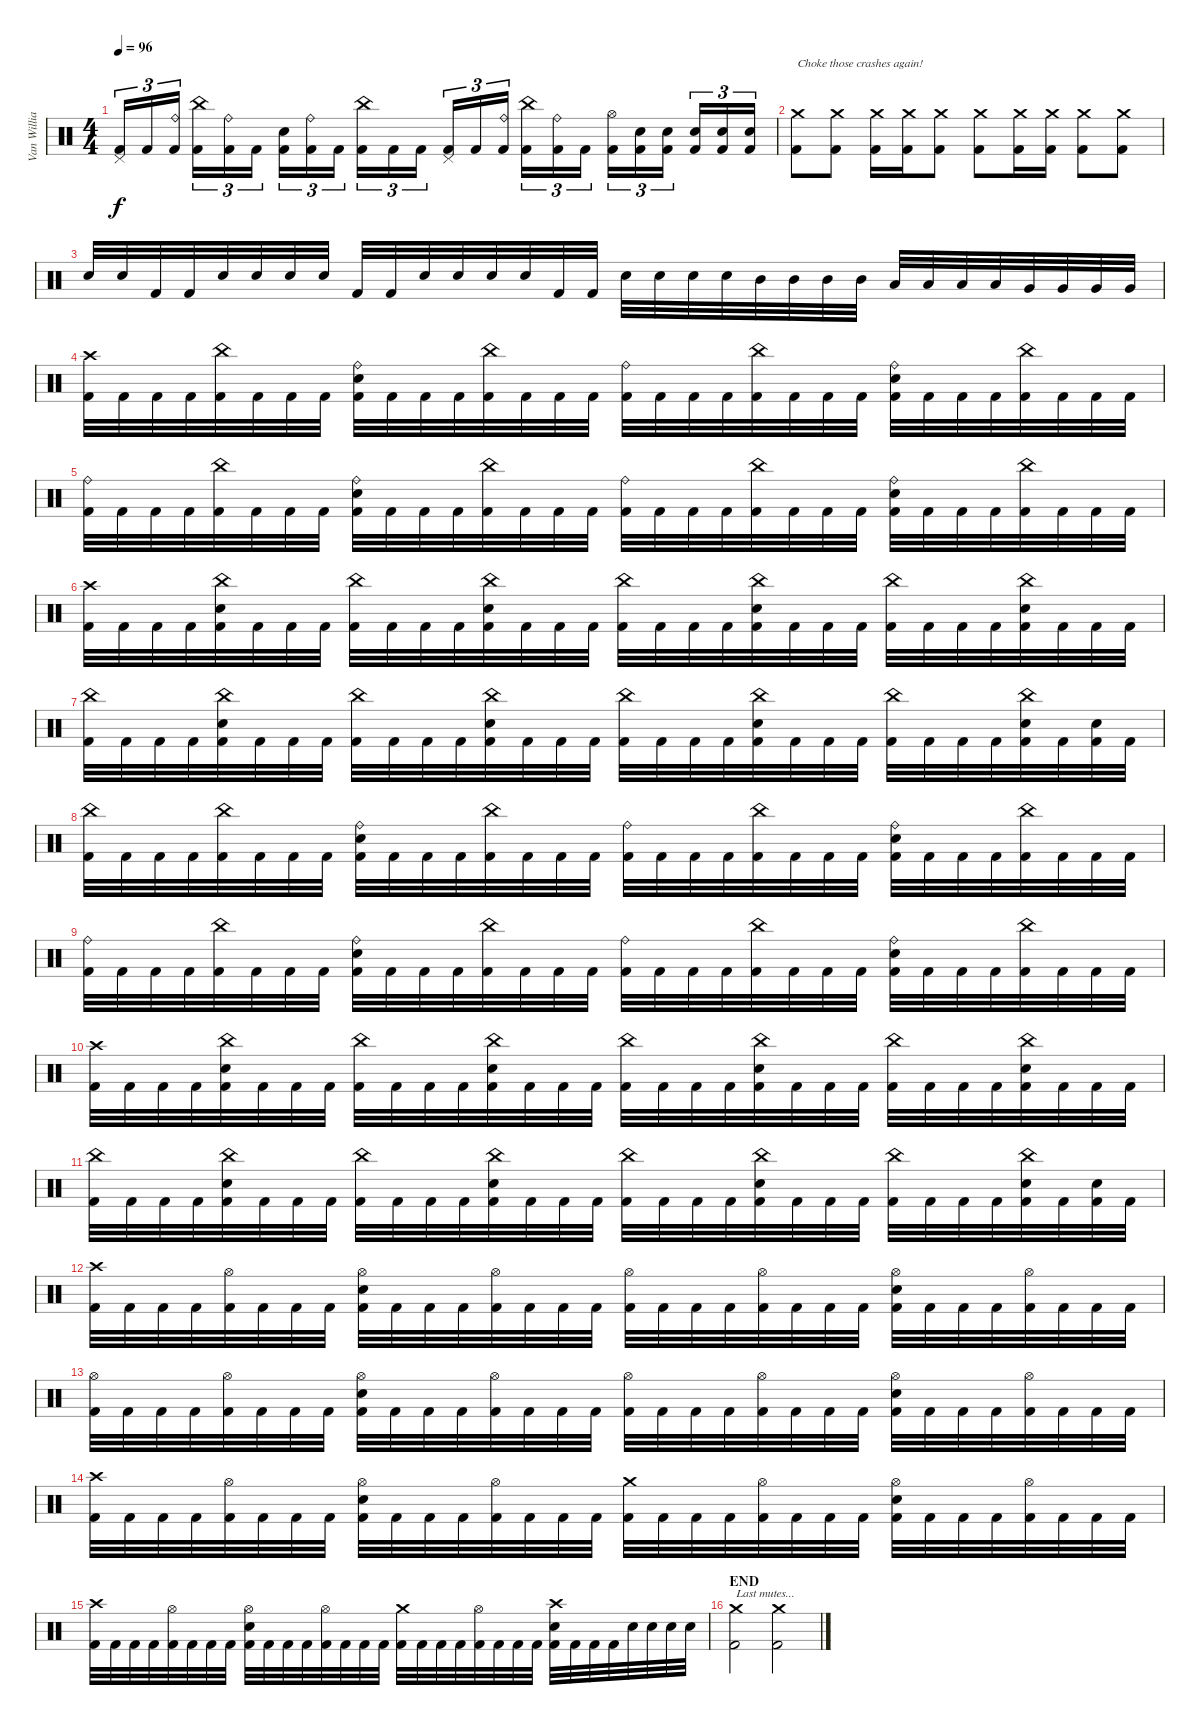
\track ("Van Williams" "Van Willia") {instrument percussion}
\staff {score}
\articulation defaults
\ts (4 4)
\tempo 96
\clef neutral
\ks c
("Pedal Hi-Hat (hit)" "Kick (hit) 2").16{tu (3 2) dy f} "Kick (hit) 2".16{tu (3 2)} ("Ride (bell)" "Kick (hit) 2").16{tu (3 2)} ("China (hit)" "Kick (hit) 2").16{tu (3 2)} ("Ride (bell)" "Kick (hit) 2").16{tu (3 2)} "Kick (hit) 2".16{tu (3 2)} ("Electric Snare (hit)" "Kick (hit) 2").16{tu (3 2)} ("Ride (bell)" "Kick (hit) 2").16{tu (3 2)} "Kick (hit) 2".16{tu (3 2)} ("China (hit)" "Kick (hit) 2").16{tu (3 2)} "Kick (hit) 2".16{tu (3 2)} "Kick (hit) 2".16{tu (3 2)} ("Pedal Hi-Hat (hit)" "Kick (hit) 2").16{tu (3 2)} "Kick (hit) 2".16{tu (3 2)} ("Ride (bell)" "Kick (hit) 2").16{tu (3 2)} ("China (hit)" "Kick (hit) 2").16{tu (3 2)} ("Ride (bell)" "Kick (hit) 2").16{tu (3 2)} "Kick (hit) 2".16{tu (3 2)} ("Hi-Hat (open)" "Kick (hit) 2").16{tu (3 2)} ("Electric Snare (hit)" "Kick (hit) 2").16{tu (3 2)} ("Electric Snare (hit)" "Kick (hit) 2").16{tu (3 2)} ("Electric Snare (hit)" "Kick (hit) 2").16{tu (3 2)} ("Electric Snare (hit)" "Kick (hit) 2").16{tu (3 2)} ("Electric Snare (hit)" "Kick (hit) 2").16{tu (3 2)} |
\section ("" "")
("Crash medium (hit)" "Kick (hit) 2").8{txt "Choke those crashes again!"} ("Crash medium (hit)" "Kick (hit) 2").8 ("Crash medium (hit)" "Kick (hit) 2").16 ("Crash medium (hit)" "Kick (hit) 2").16 ("Crash medium (hit)" "Kick (hit) 2").8 ("Crash medium (hit)" "Kick (hit) 2").8 ("Crash medium (hit)" "Kick (hit) 2").16 ("Crash medium (hit)" "Kick (hit) 2").16 ("Crash medium (hit)" "Kick (hit) 2").8 ("Crash medium (hit)" "Kick (hit) 2").8 |
"Electric Snare (hit)".32 "Electric Snare (hit)".32 "Kick (hit) 2".32 "Kick (hit) 2".32 "Electric Snare (hit)".32 "Electric Snare (hit)".32 "Electric Snare (hit)".32 "Electric Snare (hit)".32 "Kick (hit) 2".32 "Kick (hit) 2".32 "Electric Snare (hit)".32 "Electric Snare (hit)".32 "Electric Snare (hit)".32 "Electric Snare (hit)".32 "Kick (hit) 2".32 "Kick (hit) 2".32 "Electric Snare (hit)".32 "Electric Snare (hit)".32 "Electric Snare (hit)".32 "Electric Snare (hit)".32 "Mid Tom (hit)".32 "Mid Tom (hit)".32 "Mid Tom (hit)".32 "Mid Tom (hit)".32 "Low Tom (hit)".32 "Low Tom (hit)".32 "Low Tom (hit)".32 "Low Tom (hit)".32 "Very Low Tom (hit)".32 "Very Low Tom (hit)".32 "Very Low Tom (hit)".32 "Very Low Tom (hit)".32 |
("Crash high (hit)" "Kick (hit) 2").32 "Kick (hit) 2".32 "Kick (hit) 2".32 "Kick (hit) 2".32 ("China (hit)" "Kick (hit) 2").32 "Kick (hit) 2".32 "Kick (hit) 2".32 "Kick (hit) 2".32 ("Ride (bell)" "Electric Snare (hit)" "Kick (hit) 2").32 "Kick (hit) 2".32 "Kick (hit) 2".32 "Kick (hit) 2".32 ("China (hit)" "Kick (hit) 2").32 "Kick (hit) 2".32 "Kick (hit) 2".32 "Kick (hit) 2".32 ("Ride (bell)" "Kick (hit) 2").32 "Kick (hit) 2".32 "Kick (hit) 2".32 "Kick (hit) 2".32 ("China (hit)" "Kick (hit) 2").32 "Kick (hit) 2".32 "Kick (hit) 2".32 "Kick (hit) 2".32 ("Ride (bell)" "Electric Snare (hit)" "Kick (hit) 2").32 "Kick (hit) 2".32 "Kick (hit) 2".32 "Kick (hit) 2".32 ("China (hit)" "Kick (hit) 2").32 "Kick (hit) 2".32 "Kick (hit) 2".32 "Kick (hit) 2".32 |
("Ride (bell)" "Kick (hit) 2").32 "Kick (hit) 2".32 "Kick (hit) 2".32 "Kick (hit) 2".32 ("China (hit)" "Kick (hit) 2").32 "Kick (hit) 2".32 "Kick (hit) 2".32 "Kick (hit) 2".32 ("Ride (bell)" "Electric Snare (hit)" "Kick (hit) 2").32 "Kick (hit) 2".32 "Kick (hit) 2".32 "Kick (hit) 2".32 ("China (hit)" "Kick (hit) 2").32 "Kick (hit) 2".32 "Kick (hit) 2".32 "Kick (hit) 2".32 ("Ride (bell)" "Kick (hit) 2").32 "Kick (hit) 2".32 "Kick (hit) 2".32 "Kick (hit) 2".32 ("China (hit)" "Kick (hit) 2").32 "Kick (hit) 2".32 "Kick (hit) 2".32 "Kick (hit) 2".32 ("Ride (bell)" "Electric Snare (hit)" "Kick (hit) 2").32 "Kick (hit) 2".32 "Kick (hit) 2".32 "Kick (hit) 2".32 ("China (hit)" "Kick (hit) 2").32 "Kick (hit) 2".32 "Kick (hit) 2".32 "Kick (hit) 2".32 |
("Crash high (hit)" "Kick (hit) 2").32 "Kick (hit) 2".32 "Kick (hit) 2".32 "Kick (hit) 2".32 ("China (hit)" "Electric Snare (hit)" "Kick (hit) 2").32 "Kick (hit) 2".32 "Kick (hit) 2".32 "Kick (hit) 2".32 ("China (hit)" "Kick (hit) 2").32 "Kick (hit) 2".32 "Kick (hit) 2".32 "Kick (hit) 2".32 ("China (hit)" "Electric Snare (hit)" "Kick (hit) 2").32 "Kick (hit) 2".32 "Kick (hit) 2".32 "Kick (hit) 2".32 ("China (hit)" "Kick (hit) 2").32 "Kick (hit) 2".32 "Kick (hit) 2".32 "Kick (hit) 2".32 ("China (hit)" "Electric Snare (hit)" "Kick (hit) 2").32 "Kick (hit) 2".32 "Kick (hit) 2".32 "Kick (hit) 2".32 ("China (hit)" "Kick (hit) 2").32 "Kick (hit) 2".32 "Kick (hit) 2".32 "Kick (hit) 2".32 ("China (hit)" "Electric Snare (hit)" "Kick (hit) 2").32 "Kick (hit) 2".32 "Kick (hit) 2".32 "Kick (hit) 2".32 |
("China (hit)" "Kick (hit) 2").32 "Kick (hit) 2".32 "Kick (hit) 2".32 "Kick (hit) 2".32 ("China (hit)" "Electric Snare (hit)" "Kick (hit) 2").32 "Kick (hit) 2".32 "Kick (hit) 2".32 "Kick (hit) 2".32 ("China (hit)" "Kick (hit) 2").32 "Kick (hit) 2".32 "Kick (hit) 2".32 "Kick (hit) 2".32 ("China (hit)" "Electric Snare (hit)" "Kick (hit) 2").32 "Kick (hit) 2".32 "Kick (hit) 2".32 "Kick (hit) 2".32 ("China (hit)" "Kick (hit) 2").32 "Kick (hit) 2".32 "Kick (hit) 2".32 "Kick (hit) 2".32 ("China (hit)" "Electric Snare (hit)" "Kick (hit) 2").32 "Kick (hit) 2".32 "Kick (hit) 2".32 "Kick (hit) 2".32 ("China (hit)" "Kick (hit) 2").32 "Kick (hit) 2".32 "Kick (hit) 2".32 "Kick (hit) 2".32 ("China (hit)" "Electric Snare (hit)" "Kick (hit) 2").32 "Kick (hit) 2".32 ("Electric Snare (hit)" "Kick (hit) 2").32 "Kick (hit) 2".32 |
("China (hit)" "Kick (hit) 2").32 "Kick (hit) 2".32 "Kick (hit) 2".32 "Kick (hit) 2".32 ("China (hit)" "Kick (hit) 2").32 "Kick (hit) 2".32 "Kick (hit) 2".32 "Kick (hit) 2".32 ("Ride (bell)" "Electric Snare (hit)" "Kick (hit) 2").32 "Kick (hit) 2".32 "Kick (hit) 2".32 "Kick (hit) 2".32 ("China (hit)" "Kick (hit) 2").32 "Kick (hit) 2".32 "Kick (hit) 2".32 "Kick (hit) 2".32 ("Ride (bell)" "Kick (hit) 2").32 "Kick (hit) 2".32 "Kick (hit) 2".32 "Kick (hit) 2".32 ("China (hit)" "Kick (hit) 2").32 "Kick (hit) 2".32 "Kick (hit) 2".32 "Kick (hit) 2".32 ("Ride (bell)" "Electric Snare (hit)" "Kick (hit) 2").32 "Kick (hit) 2".32 "Kick (hit) 2".32 "Kick (hit) 2".32 ("China (hit)" "Kick (hit) 2").32 "Kick (hit) 2".32 "Kick (hit) 2".32 "Kick (hit) 2".32 |
("Ride (bell)" "Kick (hit) 2").32 "Kick (hit) 2".32 "Kick (hit) 2".32 "Kick (hit) 2".32 ("China (hit)" "Kick (hit) 2").32 "Kick (hit) 2".32 "Kick (hit) 2".32 "Kick (hit) 2".32 ("Ride (bell)" "Electric Snare (hit)" "Kick (hit) 2").32 "Kick (hit) 2".32 "Kick (hit) 2".32 "Kick (hit) 2".32 ("China (hit)" "Kick (hit) 2").32 "Kick (hit) 2".32 "Kick (hit) 2".32 "Kick (hit) 2".32 ("Ride (bell)" "Kick (hit) 2").32 "Kick (hit) 2".32 "Kick (hit) 2".32 "Kick (hit) 2".32 ("China (hit)" "Kick (hit) 2").32 "Kick (hit) 2".32 "Kick (hit) 2".32 "Kick (hit) 2".32 ("Ride (bell)" "Electric Snare (hit)" "Kick (hit) 2").32 "Kick (hit) 2".32 "Kick (hit) 2".32 "Kick (hit) 2".32 ("China (hit)" "Kick (hit) 2").32 "Kick (hit) 2".32 "Kick (hit) 2".32 "Kick (hit) 2".32 |
("Crash high (hit)" "Kick (hit) 2").32 "Kick (hit) 2".32 "Kick (hit) 2".32 "Kick (hit) 2".32 ("China (hit)" "Electric Snare (hit)" "Kick (hit) 2").32 "Kick (hit) 2".32 "Kick (hit) 2".32 "Kick (hit) 2".32 ("China (hit)" "Kick (hit) 2").32 "Kick (hit) 2".32 "Kick (hit) 2".32 "Kick (hit) 2".32 ("China (hit)" "Electric Snare (hit)" "Kick (hit) 2").32 "Kick (hit) 2".32 "Kick (hit) 2".32 "Kick (hit) 2".32 ("China (hit)" "Kick (hit) 2").32 "Kick (hit) 2".32 "Kick (hit) 2".32 "Kick (hit) 2".32 ("China (hit)" "Electric Snare (hit)" "Kick (hit) 2").32 "Kick (hit) 2".32 "Kick (hit) 2".32 "Kick (hit) 2".32 ("China (hit)" "Kick (hit) 2").32 "Kick (hit) 2".32 "Kick (hit) 2".32 "Kick (hit) 2".32 ("China (hit)" "Electric Snare (hit)" "Kick (hit) 2").32 "Kick (hit) 2".32 "Kick (hit) 2".32 "Kick (hit) 2".32 |
("China (hit)" "Kick (hit) 2").32 "Kick (hit) 2".32 "Kick (hit) 2".32 "Kick (hit) 2".32 ("China (hit)" "Electric Snare (hit)" "Kick (hit) 2").32 "Kick (hit) 2".32 "Kick (hit) 2".32 "Kick (hit) 2".32 ("China (hit)" "Kick (hit) 2").32 "Kick (hit) 2".32 "Kick (hit) 2".32 "Kick (hit) 2".32 ("China (hit)" "Electric Snare (hit)" "Kick (hit) 2").32 "Kick (hit) 2".32 "Kick (hit) 2".32 "Kick (hit) 2".32 ("China (hit)" "Kick (hit) 2").32 "Kick (hit) 2".32 "Kick (hit) 2".32 "Kick (hit) 2".32 ("China (hit)" "Electric Snare (hit)" "Kick (hit) 2").32 "Kick (hit) 2".32 "Kick (hit) 2".32 "Kick (hit) 2".32 ("China (hit)" "Kick (hit) 2").32 "Kick (hit) 2".32 "Kick (hit) 2".32 "Kick (hit) 2".32 ("China (hit)" "Electric Snare (hit)" "Kick (hit) 2").32 "Kick (hit) 2".32 ("Electric Snare (hit)" "Kick (hit) 2").32 "Kick (hit) 2".32 |
("Crash high (hit)" "Kick (hit) 2").32 "Kick (hit) 2".32 "Kick (hit) 2".32 "Kick (hit) 2".32 ("Hi-Hat (open)" "Kick (hit) 2").32 "Kick (hit) 2".32 "Kick (hit) 2".32 "Kick (hit) 2".32 ("Hi-Hat (open)" "Electric Snare (hit)" "Kick (hit) 2").32 "Kick (hit) 2".32 "Kick (hit) 2".32 "Kick (hit) 2".32 ("Hi-Hat (open)" "Kick (hit) 2").32 "Kick (hit) 2".32 "Kick (hit) 2".32 "Kick (hit) 2".32 ("Hi-Hat (open)" "Kick (hit) 2").32 "Kick (hit) 2".32 "Kick (hit) 2".32 "Kick (hit) 2".32 ("Hi-Hat (open)" "Kick (hit) 2").32 "Kick (hit) 2".32 "Kick (hit) 2".32 "Kick (hit) 2".32 ("Hi-Hat (open)" "Electric Snare (hit)" "Kick (hit) 2").32 "Kick (hit) 2".32 "Kick (hit) 2".32 "Kick (hit) 2".32 ("Hi-Hat (open)" "Kick (hit) 2").32 "Kick (hit) 2".32 "Kick (hit) 2".32 "Kick (hit) 2".32 |
("Hi-Hat (open)" "Kick (hit) 2").32 "Kick (hit) 2".32 "Kick (hit) 2".32 "Kick (hit) 2".32 ("Hi-Hat (open)" "Kick (hit) 2").32 "Kick (hit) 2".32 "Kick (hit) 2".32 "Kick (hit) 2".32 ("Hi-Hat (open)" "Electric Snare (hit)" "Kick (hit) 2").32 "Kick (hit) 2".32 "Kick (hit) 2".32 "Kick (hit) 2".32 ("Hi-Hat (open)" "Kick (hit) 2").32 "Kick (hit) 2".32 "Kick (hit) 2".32 "Kick (hit) 2".32 ("Hi-Hat (open)" "Kick (hit) 2").32 "Kick (hit) 2".32 "Kick (hit) 2".32 "Kick (hit) 2".32 ("Hi-Hat (open)" "Kick (hit) 2").32 "Kick (hit) 2".32 "Kick (hit) 2".32 "Kick (hit) 2".32 ("Hi-Hat (open)" "Electric Snare (hit)" "Kick (hit) 2").32 "Kick (hit) 2".32 "Kick (hit) 2".32 "Kick (hit) 2".32 ("Hi-Hat (open)" "Kick (hit) 2").32 "Kick (hit) 2".32 "Kick (hit) 2".32 "Kick (hit) 2".32 |
("Crash high (hit)" "Kick (hit) 2").32 "Kick (hit) 2".32 "Kick (hit) 2".32 "Kick (hit) 2".32 ("Hi-Hat (open)" "Kick (hit) 2").32 "Kick (hit) 2".32 "Kick (hit) 2".32 "Kick (hit) 2".32 ("Hi-Hat (open)" "Electric Snare (hit)" "Kick (hit) 2").32 "Kick (hit) 2".32 "Kick (hit) 2".32 "Kick (hit) 2".32 ("Hi-Hat (open)" "Kick (hit) 2").32 "Kick (hit) 2".32 "Kick (hit) 2".32 "Kick (hit) 2".32 ("Crash medium (hit)" "Kick (hit) 2").32 "Kick (hit) 2".32 "Kick (hit) 2".32 "Kick (hit) 2".32 ("Hi-Hat (open)" "Kick (hit) 2").32 "Kick (hit) 2".32 "Kick (hit) 2".32 "Kick (hit) 2".32 ("Hi-Hat (open)" "Electric Snare (hit)" "Kick (hit) 2").32 "Kick (hit) 2".32 "Kick (hit) 2".32 "Kick (hit) 2".32 ("Hi-Hat (open)" "Kick (hit) 2").32 "Kick (hit) 2".32 "Kick (hit) 2".32 "Kick (hit) 2".32 |
("Crash high (hit)" "Kick (hit) 2").32 "Kick (hit) 2".32 "Kick (hit) 2".32 "Kick (hit) 2".32 ("Hi-Hat (open)" "Kick (hit) 2").32 "Kick (hit) 2".32 "Kick (hit) 2".32 "Kick (hit) 2".32 ("Hi-Hat (open)" "Electric Snare (hit)" "Kick (hit) 2").32 "Kick (hit) 2".32 "Kick (hit) 2".32 "Kick (hit) 2".32 ("Hi-Hat (open)" "Kick (hit) 2").32 "Kick (hit) 2".32 "Kick (hit) 2".32 "Kick (hit) 2".32 ("Crash medium (hit)" "Kick (hit) 2").32 "Kick (hit) 2".32 "Kick (hit) 2".32 "Kick (hit) 2".32 ("Hi-Hat (open)" "Kick (hit) 2").32 "Kick (hit) 2".32 "Kick (hit) 2".32 "Kick (hit) 2".32 ("Crash high (hit)" "Electric Snare (hit)" "Kick (hit) 2").32 "Kick (hit) 2".32 "Kick (hit) 2".32 "Kick (hit) 2".32 "Electric Snare (hit)".32 "Electric Snare (hit)".32 "Electric Snare (hit)".32 "Electric Snare (hit)".32 |
\section ("" "END")
("Crash medium (hit)" "Kick (hit) 2").2{txt "Last mutes..."} ("Crash medium (hit)" "Kick (hit) 2").2
